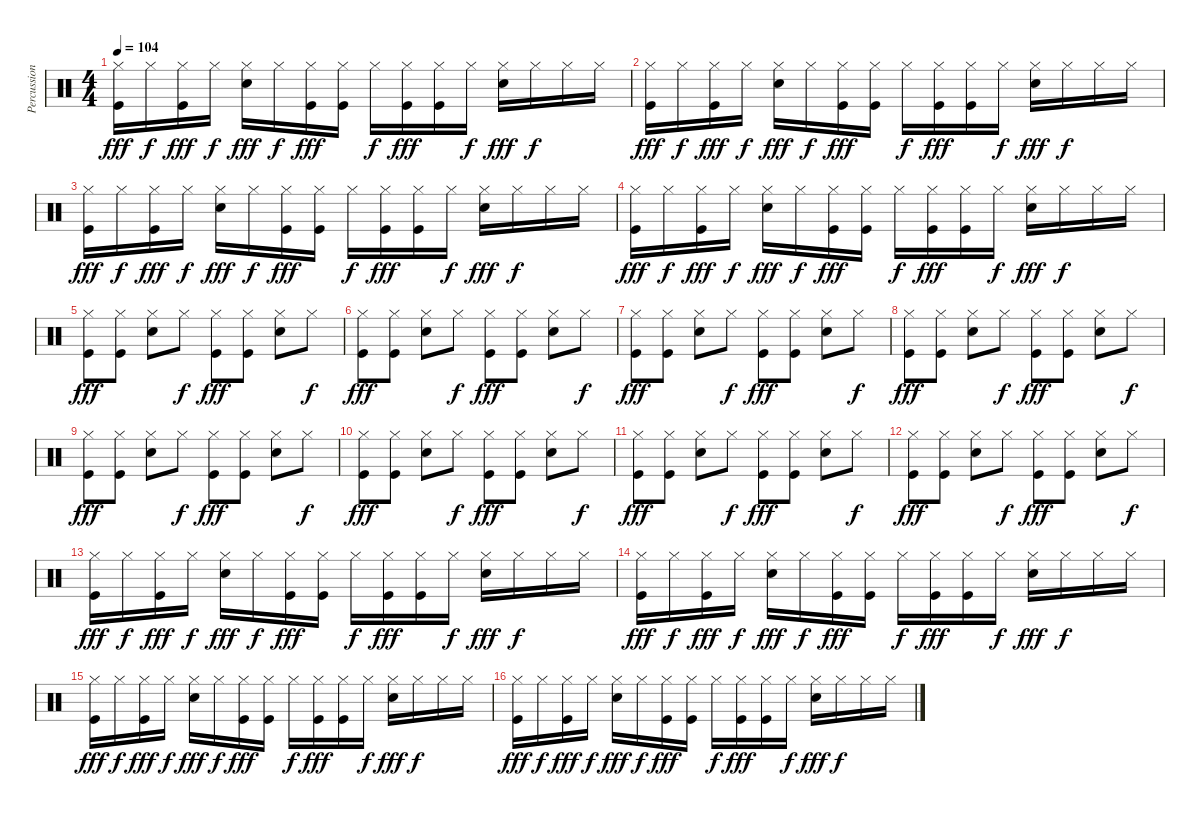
\track ("Percussion" "Percussion") {instrument percussion}
\staff {score}
\articulation defaults
\ts (4 4)
\tempo 104
\clef neutral
\ks c
("Kick (hit)" "Hi-Hat (closed)").16{dy fff} "Hi-Hat (closed)".16{dy f} ("Kick (hit)" "Hi-Hat (closed)").16{dy fff} "Hi-Hat (closed)".16{dy f} ("Snare (hit) 2" "Hi-Hat (closed)").16{dy fff} "Hi-Hat (closed)".16{dy f} ("Kick (hit)" "Hi-Hat (closed)").16{dy fff} ("Kick (hit)" "Hi-Hat (closed)").16 "Hi-Hat (closed)".16{dy f} ("Kick (hit)" "Hi-Hat (closed)").16{dy fff} ("Kick (hit)" "Hi-Hat (closed)").16 "Hi-Hat (closed)".16{dy f} ("Snare (hit) 2" "Hi-Hat (closed)").16{dy fff} "Hi-Hat (closed)".16{dy f} "Hi-Hat (closed)".16 "Hi-Hat (closed)".16 |
("Kick (hit)" "Hi-Hat (closed)").16{dy fff} "Hi-Hat (closed)".16{dy f} ("Kick (hit)" "Hi-Hat (closed)").16{dy fff} "Hi-Hat (closed)".16{dy f} ("Snare (hit) 2" "Hi-Hat (closed)").16{dy fff} "Hi-Hat (closed)".16{dy f} ("Kick (hit)" "Hi-Hat (closed)").16{dy fff} ("Kick (hit)" "Hi-Hat (closed)").16 "Hi-Hat (closed)".16{dy f} ("Kick (hit)" "Hi-Hat (closed)").16{dy fff} ("Kick (hit)" "Hi-Hat (closed)").16 "Hi-Hat (closed)".16{dy f} ("Snare (hit) 2" "Hi-Hat (closed)").16{dy fff} "Hi-Hat (closed)".16{dy f} "Hi-Hat (closed)".16 "Hi-Hat (closed)".16 |
("Kick (hit)" "Hi-Hat (closed)").16{dy fff} "Hi-Hat (closed)".16{dy f} ("Kick (hit)" "Hi-Hat (closed)").16{dy fff} "Hi-Hat (closed)".16{dy f} ("Snare (hit) 2" "Hi-Hat (closed)").16{dy fff} "Hi-Hat (closed)".16{dy f} ("Kick (hit)" "Hi-Hat (closed)").16{dy fff} ("Kick (hit)" "Hi-Hat (closed)").16 "Hi-Hat (closed)".16{dy f} ("Kick (hit)" "Hi-Hat (closed)").16{dy fff} ("Kick (hit)" "Hi-Hat (closed)").16 "Hi-Hat (closed)".16{dy f} ("Snare (hit) 2" "Hi-Hat (closed)").16{dy fff} "Hi-Hat (closed)".16{dy f} "Hi-Hat (closed)".16 "Hi-Hat (closed)".16 |
("Kick (hit)" "Hi-Hat (closed)").16{dy fff} "Hi-Hat (closed)".16{dy f} ("Kick (hit)" "Hi-Hat (closed)").16{dy fff} "Hi-Hat (closed)".16{dy f} ("Snare (hit) 2" "Hi-Hat (closed)").16{dy fff} "Hi-Hat (closed)".16{dy f} ("Kick (hit)" "Hi-Hat (closed)").16{dy fff} ("Kick (hit)" "Hi-Hat (closed)").16 "Hi-Hat (closed)".16{dy f} ("Kick (hit)" "Hi-Hat (closed)").16{dy fff} ("Kick (hit)" "Hi-Hat (closed)").16 "Hi-Hat (closed)".16{dy f} ("Snare (hit) 2" "Hi-Hat (closed)").16{dy fff} "Hi-Hat (closed)".16{dy f} "Hi-Hat (closed)".16 "Hi-Hat (closed)".16 |
("Kick (hit)" "Hi-Hat (closed)").8{dy fff} ("Kick (hit)" "Hi-Hat (closed)").8 ("Snare (hit) 2" "Hi-Hat (closed)").8 "Hi-Hat (closed)".8{dy f} ("Kick (hit)" "Hi-Hat (closed)").8{dy fff} ("Kick (hit)" "Hi-Hat (closed)").8 ("Snare (hit) 2" "Hi-Hat (closed)").8 "Hi-Hat (closed)".8{dy f} |
("Kick (hit)" "Hi-Hat (closed)").8{dy fff} ("Kick (hit)" "Hi-Hat (closed)").8 ("Snare (hit) 2" "Hi-Hat (closed)").8 "Hi-Hat (closed)".8{dy f} ("Kick (hit)" "Hi-Hat (closed)").8{dy fff} ("Kick (hit)" "Hi-Hat (closed)").8 ("Snare (hit) 2" "Hi-Hat (closed)").8 "Hi-Hat (closed)".8{dy f} |
("Kick (hit)" "Hi-Hat (closed)").8{dy fff} ("Kick (hit)" "Hi-Hat (closed)").8 ("Snare (hit) 2" "Hi-Hat (closed)").8 "Hi-Hat (closed)".8{dy f} ("Kick (hit)" "Hi-Hat (closed)").8{dy fff} ("Kick (hit)" "Hi-Hat (closed)").8 ("Snare (hit) 2" "Hi-Hat (closed)").8 "Hi-Hat (closed)".8{dy f} |
("Kick (hit)" "Hi-Hat (closed)").8{dy fff} ("Kick (hit)" "Hi-Hat (closed)").8 ("Snare (hit) 2" "Hi-Hat (closed)").8 "Hi-Hat (closed)".8{dy f} ("Kick (hit)" "Hi-Hat (closed)").8{dy fff} ("Kick (hit)" "Hi-Hat (closed)").8 ("Snare (hit) 2" "Hi-Hat (closed)").8 "Hi-Hat (closed)".8{dy f} |
("Kick (hit)" "Hi-Hat (closed)").8{dy fff} ("Kick (hit)" "Hi-Hat (closed)").8 ("Snare (hit) 2" "Hi-Hat (closed)").8 "Hi-Hat (closed)".8{dy f} ("Kick (hit)" "Hi-Hat (closed)").8{dy fff} ("Kick (hit)" "Hi-Hat (closed)").8 ("Snare (hit) 2" "Hi-Hat (closed)").8 "Hi-Hat (closed)".8{dy f} |
("Kick (hit)" "Hi-Hat (closed)").8{dy fff} ("Kick (hit)" "Hi-Hat (closed)").8 ("Snare (hit) 2" "Hi-Hat (closed)").8 "Hi-Hat (closed)".8{dy f} ("Kick (hit)" "Hi-Hat (closed)").8{dy fff} ("Kick (hit)" "Hi-Hat (closed)").8 ("Snare (hit) 2" "Hi-Hat (closed)").8 "Hi-Hat (closed)".8{dy f} |
("Kick (hit)" "Hi-Hat (closed)").8{dy fff} ("Kick (hit)" "Hi-Hat (closed)").8 ("Snare (hit) 2" "Hi-Hat (closed)").8 "Hi-Hat (closed)".8{dy f} ("Kick (hit)" "Hi-Hat (closed)").8{dy fff} ("Kick (hit)" "Hi-Hat (closed)").8 ("Snare (hit) 2" "Hi-Hat (closed)").8 "Hi-Hat (closed)".8{dy f} |
("Kick (hit)" "Hi-Hat (closed)").8{dy fff} ("Kick (hit)" "Hi-Hat (closed)").8 ("Snare (hit) 2" "Hi-Hat (closed)").8 "Hi-Hat (closed)".8{dy f} ("Kick (hit)" "Hi-Hat (closed)").8{dy fff} ("Kick (hit)" "Hi-Hat (closed)").8 ("Snare (hit) 2" "Hi-Hat (closed)").8 "Hi-Hat (closed)".8{dy f} |
("Kick (hit)" "Hi-Hat (closed)").16{dy fff} "Hi-Hat (closed)".16{dy f} ("Kick (hit)" "Hi-Hat (closed)").16{dy fff} "Hi-Hat (closed)".16{dy f} ("Snare (hit) 2" "Hi-Hat (closed)").16{dy fff} "Hi-Hat (closed)".16{dy f} ("Kick (hit)" "Hi-Hat (closed)").16{dy fff} ("Kick (hit)" "Hi-Hat (closed)").16 "Hi-Hat (closed)".16{dy f} ("Kick (hit)" "Hi-Hat (closed)").16{dy fff} ("Kick (hit)" "Hi-Hat (closed)").16 "Hi-Hat (closed)".16{dy f} ("Snare (hit) 2" "Hi-Hat (closed)").16{dy fff} "Hi-Hat (closed)".16{dy f} "Hi-Hat (closed)".16 "Hi-Hat (closed)".16 |
("Kick (hit)" "Hi-Hat (closed)").16{dy fff} "Hi-Hat (closed)".16{dy f} ("Kick (hit)" "Hi-Hat (closed)").16{dy fff} "Hi-Hat (closed)".16{dy f} ("Snare (hit) 2" "Hi-Hat (closed)").16{dy fff} "Hi-Hat (closed)".16{dy f} ("Kick (hit)" "Hi-Hat (closed)").16{dy fff} ("Kick (hit)" "Hi-Hat (closed)").16 "Hi-Hat (closed)".16{dy f} ("Kick (hit)" "Hi-Hat (closed)").16{dy fff} ("Kick (hit)" "Hi-Hat (closed)").16 "Hi-Hat (closed)".16{dy f} ("Snare (hit) 2" "Hi-Hat (closed)").16{dy fff} "Hi-Hat (closed)".16{dy f} "Hi-Hat (closed)".16 "Hi-Hat (closed)".16 |
("Kick (hit)" "Hi-Hat (closed)").16{dy fff} "Hi-Hat (closed)".16{dy f} ("Kick (hit)" "Hi-Hat (closed)").16{dy fff} "Hi-Hat (closed)".16{dy f} ("Snare (hit) 2" "Hi-Hat (closed)").16{dy fff} "Hi-Hat (closed)".16{dy f} ("Kick (hit)" "Hi-Hat (closed)").16{dy fff} ("Kick (hit)" "Hi-Hat (closed)").16 "Hi-Hat (closed)".16{dy f} ("Kick (hit)" "Hi-Hat (closed)").16{dy fff} ("Kick (hit)" "Hi-Hat (closed)").16 "Hi-Hat (closed)".16{dy f} ("Snare (hit) 2" "Hi-Hat (closed)").16{dy fff} "Hi-Hat (closed)".16{dy f} "Hi-Hat (closed)".16 "Hi-Hat (closed)".16 |
("Kick (hit)" "Hi-Hat (closed)").16{dy fff} "Hi-Hat (closed)".16{dy f} ("Kick (hit)" "Hi-Hat (closed)").16{dy fff} "Hi-Hat (closed)".16{dy f} ("Snare (hit) 2" "Hi-Hat (closed)").16{dy fff} "Hi-Hat (closed)".16{dy f} ("Kick (hit)" "Hi-Hat (closed)").16{dy fff} ("Kick (hit)" "Hi-Hat (closed)").16 "Hi-Hat (closed)".16{dy f} ("Kick (hit)" "Hi-Hat (closed)").16{dy fff} ("Kick (hit)" "Hi-Hat (closed)").16 "Hi-Hat (closed)".16{dy f} ("Snare (hit) 2" "Hi-Hat (closed)").16{dy fff} "Hi-Hat (closed)".16{dy f} "Hi-Hat (closed)".16 "Hi-Hat (closed)".16
